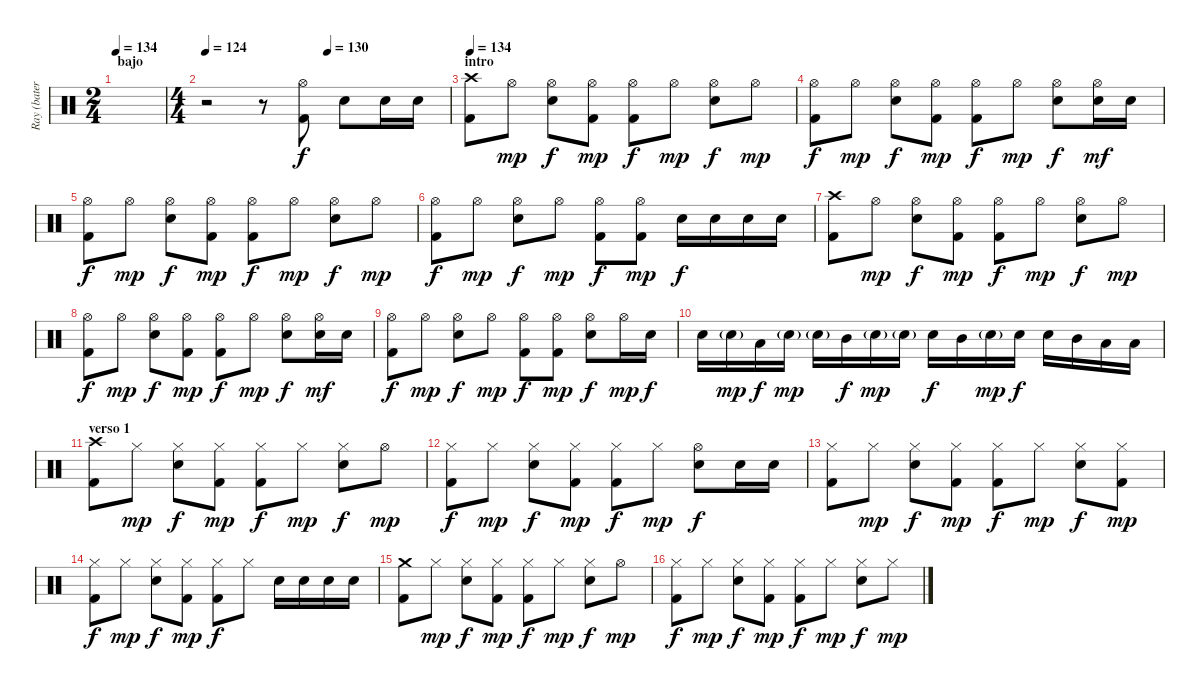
\track ("Ray (batería)" "Ray (bater") {instrument percussion}
\staff {score}
\articulation defaults
\ts (2 4)
\section ("" "bajo")
\tempo 134
\tempo 120
\tempo 134
\clef neutral
\ks c
|
\ts (4 4)
\tempo 124
\tempo (130 0.5)
r.2 r.8 ("Hi-Hat (open)" "Kick (hit) 2").8 "Snare (hit) 2".8 "Snare (hit) 2".16 "Snare (hit) 2".16 |
\section ("" "intro")
\tempo 134
("Crash high (hit)" "Kick (hit) 2").8 "Hi-Hat (open)".8{dy mp} ("Hi-Hat (open)" "Snare (hit) 2").8{dy f} ("Hi-Hat (open)" "Kick (hit) 2").8{dy mp} ("Hi-Hat (open)" "Kick (hit) 2").8{dy f} "Hi-Hat (open)".8{dy mp} ("Hi-Hat (open)" "Snare (hit) 2").8{dy f} "Hi-Hat (open)".8{dy mp} |
("Hi-Hat (open)" "Kick (hit) 2").8{dy f} "Hi-Hat (open)".8{dy mp} ("Hi-Hat (open)" "Snare (hit) 2").8{dy f} ("Hi-Hat (open)" "Kick (hit) 2").8{dy mp} ("Hi-Hat (open)" "Kick (hit) 2").8{dy f} "Hi-Hat (open)".8{dy mp} ("Hi-Hat (open)" "Snare (hit) 2").8{dy f} ("Hi-Hat (open)" "Snare (hit) 2").16{dy mf} "Snare (hit) 2".16 |
("Hi-Hat (open)" "Kick (hit) 2").8{dy f} "Hi-Hat (open)".8{dy mp} ("Hi-Hat (open)" "Snare (hit) 2").8{dy f} ("Hi-Hat (open)" "Kick (hit) 2").8{dy mp} ("Hi-Hat (open)" "Kick (hit) 2").8{dy f} "Hi-Hat (open)".8{dy mp} ("Hi-Hat (open)" "Snare (hit) 2").8{dy f} "Hi-Hat (open)".8{dy mp} |
("Hi-Hat (open)" "Kick (hit) 2").8{dy f} "Hi-Hat (open)".8{dy mp} ("Hi-Hat (open)" "Snare (hit) 2").8{dy f} "Hi-Hat (open)".8{dy mp} ("Hi-Hat (open)" "Kick (hit) 2").8{dy f} ("Hi-Hat (open)" "Kick (hit) 2").8{dy mp} "Snare (hit) 2".16{dy f} "Snare (hit) 2".16 "Snare (hit) 2".16 "Snare (hit) 2".16 |
("Crash high (hit)" "Kick (hit) 2").8 "Hi-Hat (open)".8{dy mp} ("Hi-Hat (open)" "Snare (hit) 2").8{dy f} ("Hi-Hat (open)" "Kick (hit) 2").8{dy mp} ("Hi-Hat (open)" "Kick (hit) 2").8{dy f} "Hi-Hat (open)".8{dy mp} ("Hi-Hat (open)" "Snare (hit) 2").8{dy f} "Hi-Hat (open)".8{dy mp} |
("Hi-Hat (open)" "Kick (hit) 2").8{dy f} "Hi-Hat (open)".8{dy mp} ("Hi-Hat (open)" "Snare (hit) 2").8{dy f} ("Hi-Hat (open)" "Kick (hit) 2").8{dy mp} ("Hi-Hat (open)" "Kick (hit) 2").8{dy f} "Hi-Hat (open)".8{dy mp} ("Hi-Hat (open)" "Snare (hit) 2").8{dy f} ("Hi-Hat (open)" "Snare (hit) 2").16{dy mf} "Snare (hit) 2".16 |
("Hi-Hat (open)" "Kick (hit) 2").8{dy f} "Hi-Hat (open)".8{dy mp} ("Hi-Hat (open)" "Snare (hit) 2").8{dy f} "Hi-Hat (open)".8{dy mp} ("Hi-Hat (open)" "Kick (hit) 2").8{dy f} ("Hi-Hat (open)" "Kick (hit) 2").8{dy mp} ("Hi-Hat (open)" "Snare (hit) 2").8{dy f} "Hi-Hat (open)".16{dy mp} "Snare (hit) 2".16{dy f} |
"Snare (hit) 2".16 "Snare (hit) 2"{g}.16{dy mp} "Low Tom (hit)".16{dy f} "Snare (hit) 2"{g}.16{dy mp} "Snare (hit) 2"{g}.16 "Mid Tom (hit)".16{dy f} "Snare (hit) 2"{g}.16{dy mp} "Snare (hit) 2"{g}.16 "Snare (hit) 2".16{dy f} "Mid Tom (hit)".16 "Snare (hit) 2"{g}.16{dy mp} "Snare (hit) 2".16{dy f} "Snare (hit) 2".16 "Mid Tom (hit)".16 "Low Tom (hit)".16 "Low Tom (hit)".16 |
\section ("" "verso 1")
("Crash high (hit)" "Kick (hit) 2").8 "Hi-Hat (closed)".8{dy mp} ("Hi-Hat (closed)" "Snare (hit) 2").8{dy f} ("Hi-Hat (closed)" "Kick (hit) 2").8{dy mp} ("Hi-Hat (closed)" "Kick (hit) 2").8{dy f} "Hi-Hat (closed)".8{dy mp} ("Hi-Hat (closed)" "Snare (hit) 2").8{dy f} "Hi-Hat (open)".8{dy mp} |
("Hi-Hat (closed)" "Kick (hit) 2").8{dy f} "Hi-Hat (closed)".8{dy mp} ("Hi-Hat (closed)" "Snare (hit) 2").8{dy f} ("Hi-Hat (closed)" "Kick (hit) 2").8{dy mp} ("Hi-Hat (closed)" "Kick (hit) 2").8{dy f} "Hi-Hat (closed)".8{dy mp} ("Hi-Hat (open)" "Snare (hit) 2").8{dy f} "Snare (hit) 2".16 "Snare (hit) 2".16 |
("Hi-Hat (closed)" "Kick (hit) 2").8 "Hi-Hat (closed)".8{dy mp} ("Hi-Hat (closed)" "Snare (hit) 2").8{dy f} ("Hi-Hat (closed)" "Kick (hit) 2").8{dy mp} ("Hi-Hat (closed)" "Kick (hit) 2").8{dy f} "Hi-Hat (closed)".8{dy mp} ("Hi-Hat (closed)" "Snare (hit) 2").8{dy f} ("Hi-Hat (closed)" "Kick (hit) 2").8{dy mp} |
("Hi-Hat (closed)" "Kick (hit) 2").8{dy f} "Hi-Hat (closed)".8{dy mp} ("Hi-Hat (closed)" "Snare (hit) 2").8{dy f} ("Hi-Hat (closed)" "Kick (hit) 2").8{dy mp} ("Hi-Hat (closed)" "Kick (hit) 2").8{dy f} "Hi-Hat (closed)".8 "Snare (hit) 2".16 "Snare (hit) 2".16 "Snare (hit) 2".16 "Snare (hit) 2".16 |
("Crash medium (hit)" "Kick (hit) 2").8 "Hi-Hat (closed)".8{dy mp} ("Hi-Hat (closed)" "Snare (hit) 2").8{dy f} ("Hi-Hat (closed)" "Kick (hit) 2").8{dy mp} ("Hi-Hat (closed)" "Kick (hit) 2").8{dy f} "Hi-Hat (closed)".8{dy mp} ("Hi-Hat (closed)" "Snare (hit) 2").8{dy f} "Hi-Hat (open)".8{dy mp} |
("Hi-Hat (closed)" "Kick (hit) 2").8{dy f} "Hi-Hat (closed)".8{dy mp} ("Hi-Hat (closed)" "Snare (hit) 2").8{dy f} ("Hi-Hat (closed)" "Kick (hit) 2").8{dy mp} ("Hi-Hat (closed)" "Kick (hit) 2").8{dy f} "Hi-Hat (closed)".8{dy mp} ("Hi-Hat (closed)" "Snare (hit) 2").8{dy f} "Hi-Hat (closed)".8{dy mp}
